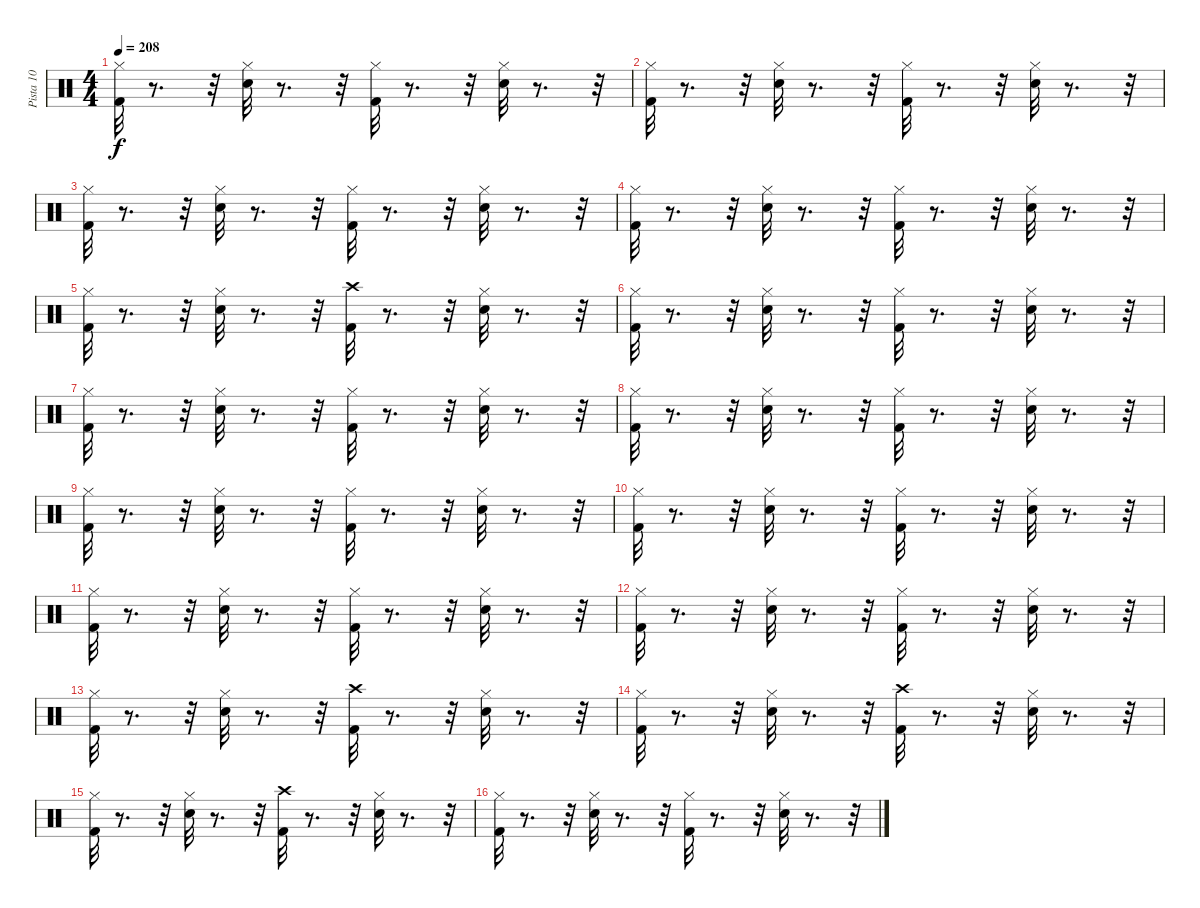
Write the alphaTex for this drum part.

\track ("Pista 10" "Pista 10") {instrument percussion}
\staff {score}
\articulation defaults
\ts (4 4)
\tempo 208
\clef neutral
\ks c
("Kick (hit) 2" "Hi-Hat (closed)").32{dy f} r.8{d} r.32 ("Snare (hit) 2" "Hi-Hat (closed)").32 r.8{d} r.32 ("Hi-Hat (closed)" "Kick (hit) 2").32 r.8{d} r.32 ("Snare (hit) 2" "Hi-Hat (closed)").32 r.8{d} r.32 |
("Kick (hit) 2" "Hi-Hat (closed)").32 r.8{d} r.32 ("Snare (hit) 2" "Hi-Hat (closed)").32 r.8{d} r.32 ("Hi-Hat (closed)" "Kick (hit) 2").32 r.8{d} r.32 ("Snare (hit) 2" "Hi-Hat (closed)").32 r.8{d} r.32 |
("Kick (hit) 2" "Hi-Hat (closed)").32 r.8{d} r.32 ("Snare (hit) 2" "Hi-Hat (closed)").32 r.8{d} r.32 ("Hi-Hat (closed)" "Kick (hit) 2").32 r.8{d} r.32 ("Snare (hit) 2" "Hi-Hat (closed)").32 r.8{d} r.32 |
("Kick (hit) 2" "Hi-Hat (closed)").32 r.8{d} r.32 ("Snare (hit) 2" "Hi-Hat (closed)").32 r.8{d} r.32 ("Hi-Hat (closed)" "Kick (hit) 2").32 r.8{d} r.32 ("Snare (hit) 2" "Hi-Hat (closed)").32 r.8{d} r.32 |
("Kick (hit) 2" "Hi-Hat (closed)").32 r.8{d} r.32 ("Snare (hit) 2" "Hi-Hat (closed)").32 r.8{d} r.32 ("Kick (hit) 2" "Crash high (hit)").32 r.8{d} r.32 ("Snare (hit) 2" "Hi-Hat (closed)").32 r.8{d} r.32 |
("Kick (hit) 2" "Hi-Hat (closed)").32 r.8{d} r.32 ("Snare (hit) 2" "Hi-Hat (closed)").32 r.8{d} r.32 ("Hi-Hat (closed)" "Kick (hit) 2").32 r.8{d} r.32 ("Snare (hit) 2" "Hi-Hat (closed)").32 r.8{d} r.32 |
("Kick (hit) 2" "Hi-Hat (closed)").32 r.8{d} r.32 ("Snare (hit) 2" "Hi-Hat (closed)").32 r.8{d} r.32 ("Hi-Hat (closed)" "Kick (hit) 2").32 r.8{d} r.32 ("Snare (hit) 2" "Hi-Hat (closed)").32 r.8{d} r.32 |
("Kick (hit) 2" "Hi-Hat (closed)").32 r.8{d} r.32 ("Snare (hit) 2" "Hi-Hat (closed)").32 r.8{d} r.32 ("Hi-Hat (closed)" "Kick (hit) 2").32 r.8{d} r.32 ("Snare (hit) 2" "Hi-Hat (closed)").32 r.8{d} r.32 |
("Kick (hit) 2" "Hi-Hat (closed)").32 r.8{d} r.32 ("Snare (hit) 2" "Hi-Hat (closed)").32 r.8{d} r.32 ("Hi-Hat (closed)" "Kick (hit) 2").32 r.8{d} r.32 ("Snare (hit) 2" "Hi-Hat (closed)").32 r.8{d} r.32 |
("Kick (hit) 2" "Hi-Hat (closed)").32 r.8{d} r.32 ("Snare (hit) 2" "Hi-Hat (closed)").32 r.8{d} r.32 ("Hi-Hat (closed)" "Kick (hit) 2").32 r.8{d} r.32 ("Snare (hit) 2" "Hi-Hat (closed)").32 r.8{d} r.32 |
("Kick (hit) 2" "Hi-Hat (closed)").32 r.8{d} r.32 ("Snare (hit) 2" "Hi-Hat (closed)").32 r.8{d} r.32 ("Hi-Hat (closed)" "Kick (hit) 2").32 r.8{d} r.32 ("Snare (hit) 2" "Hi-Hat (closed)").32 r.8{d} r.32 |
("Kick (hit) 2" "Hi-Hat (closed)").32 r.8{d} r.32 ("Snare (hit) 2" "Hi-Hat (closed)").32 r.8{d} r.32 ("Hi-Hat (closed)" "Kick (hit) 2").32 r.8{d} r.32 ("Snare (hit) 2" "Hi-Hat (closed)").32 r.8{d} r.32 |
("Kick (hit) 2" "Hi-Hat (closed)").32 r.8{d} r.32 ("Snare (hit) 2" "Hi-Hat (closed)").32 r.8{d} r.32 ("Crash high (hit)" "Kick (hit) 2").32 r.8{d} r.32 ("Snare (hit) 2" "Hi-Hat (closed)").32 r.8{d} r.32 |
("Kick (hit) 2" "Hi-Hat (closed)").32 r.8{d} r.32 ("Snare (hit) 2" "Hi-Hat (closed)").32 r.8{d} r.32 ("Crash high (hit)" "Kick (hit) 2").32 r.8{d} r.32 ("Snare (hit) 2" "Hi-Hat (closed)").32 r.8{d} r.32 |
("Kick (hit) 2" "Hi-Hat (closed)").32 r.8{d} r.32 ("Snare (hit) 2" "Hi-Hat (closed)").32 r.8{d} r.32 ("Crash high (hit)" "Kick (hit) 2").32 r.8{d} r.32 ("Snare (hit) 2" "Hi-Hat (closed)").32 r.8{d} r.32 |
("Kick (hit) 2" "Hi-Hat (closed)").32 r.8{d} r.32 ("Snare (hit) 2" "Hi-Hat (closed)").32 r.8{d} r.32 ("Hi-Hat (closed)" "Kick (hit) 2").32 r.8{d} r.32 ("Snare (hit) 2" "Hi-Hat (closed)").32 r.8{d} r.32
